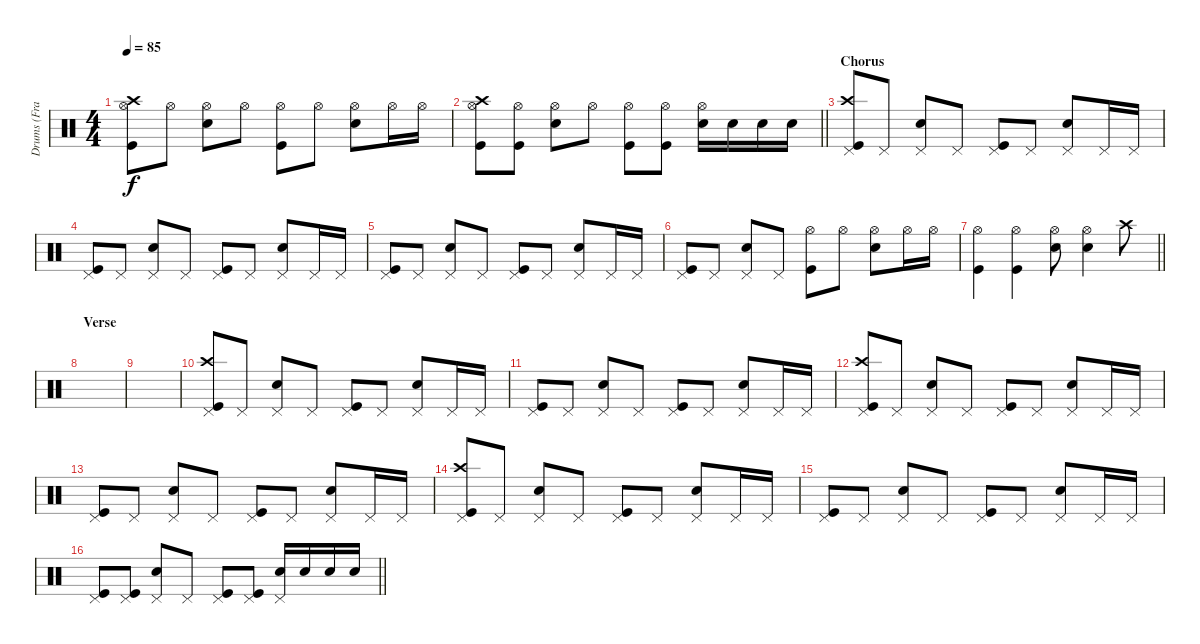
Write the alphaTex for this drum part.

\track ("Drums (Frank Ferrer)" "Drums (Fra") {instrument percussion}
\staff {score}
\articulation defaults
\ts (4 4)
\tempo 85
\clef neutral
\ks c
("Kick (hit)" "Hi-Hat (open)" "Crash high (hit)").8{dy f} "Hi-Hat (open)".8 ("Snare (hit) 2" "Hi-Hat (open)").8 "Hi-Hat (open)".8 ("Kick (hit)" "Hi-Hat (open)").8 "Hi-Hat (open)".8 ("Snare (hit) 2" "Hi-Hat (open)").8 "Hi-Hat (open)".16 "Hi-Hat (open)".16 |
\barLineRight lightlight
("Kick (hit)" "Hi-Hat (open)" "Crash high (hit)").8 ("Kick (hit)" "Hi-Hat (open)").8 ("Snare (hit) 2" "Hi-Hat (open)").8 "Hi-Hat (open)".8 ("Kick (hit)" "Hi-Hat (open)").8 ("Kick (hit)" "Hi-Hat (open)").8 ("Snare (hit) 2" "Hi-Hat (open)").16 "Snare (hit) 2".16 "Snare (hit) 2".16 "Snare (hit) 2".16 |
\section ("" "Chorus")
("Kick (hit)" "Pedal Hi-Hat (hit)" "Crash high (hit)").8 "Pedal Hi-Hat (hit)".8 ("Snare (hit) 2" "Pedal Hi-Hat (hit)").8 "Pedal Hi-Hat (hit)".8 ("Kick (hit)" "Pedal Hi-Hat (hit)").8 "Pedal Hi-Hat (hit)".8 ("Snare (hit) 2" "Pedal Hi-Hat (hit)").8 "Pedal Hi-Hat (hit)".16 "Pedal Hi-Hat (hit)".16 |
("Kick (hit)" "Pedal Hi-Hat (hit)").8 "Pedal Hi-Hat (hit)".8 ("Snare (hit) 2" "Pedal Hi-Hat (hit)").8 "Pedal Hi-Hat (hit)".8 ("Kick (hit)" "Pedal Hi-Hat (hit)").8 "Pedal Hi-Hat (hit)".8 ("Snare (hit) 2" "Pedal Hi-Hat (hit)").8 "Pedal Hi-Hat (hit)".16 "Pedal Hi-Hat (hit)".16 |
("Kick (hit)" "Pedal Hi-Hat (hit)").8 "Pedal Hi-Hat (hit)".8 ("Snare (hit) 2" "Pedal Hi-Hat (hit)").8 "Pedal Hi-Hat (hit)".8 ("Kick (hit)" "Pedal Hi-Hat (hit)").8 "Pedal Hi-Hat (hit)".8 ("Snare (hit) 2" "Pedal Hi-Hat (hit)").8 "Pedal Hi-Hat (hit)".16 "Pedal Hi-Hat (hit)".16 |
("Kick (hit)" "Pedal Hi-Hat (hit)").8 "Pedal Hi-Hat (hit)".8 ("Snare (hit) 2" "Pedal Hi-Hat (hit)").8 "Pedal Hi-Hat (hit)".8 ("Kick (hit)" "Hi-Hat (open)").8 "Hi-Hat (open)".8 ("Snare (hit) 2" "Hi-Hat (open)").8 "Hi-Hat (open)".16 "Hi-Hat (open)".16 |
\barLineRight lightlight
("Kick (hit)" "Hi-Hat (open)").4 ("Kick (hit)" "Hi-Hat (open)").4 ("Snare (hit) 2" "Hi-Hat (open)").8 ("Snare (hit) 2" "Hi-Hat (open)").4 "Crash high (hit)".8 |
\section ("" "Verse")
|
|
("Kick (hit)" "Pedal Hi-Hat (hit)" "Crash high (hit)").8 "Pedal Hi-Hat (hit)".8 ("Snare (hit) 2" "Pedal Hi-Hat (hit)").8 "Pedal Hi-Hat (hit)".8 ("Kick (hit)" "Pedal Hi-Hat (hit)").8 "Pedal Hi-Hat (hit)".8 ("Snare (hit) 2" "Pedal Hi-Hat (hit)").8 "Pedal Hi-Hat (hit)".16 "Pedal Hi-Hat (hit)".16 |
("Kick (hit)" "Pedal Hi-Hat (hit)").8 "Pedal Hi-Hat (hit)".8 ("Snare (hit) 2" "Pedal Hi-Hat (hit)").8 "Pedal Hi-Hat (hit)".8 ("Kick (hit)" "Pedal Hi-Hat (hit)").8 "Pedal Hi-Hat (hit)".8 ("Snare (hit) 2" "Pedal Hi-Hat (hit)").8 "Pedal Hi-Hat (hit)".16 "Pedal Hi-Hat (hit)".16 |
("Kick (hit)" "Pedal Hi-Hat (hit)" "Crash high (hit)").8 "Pedal Hi-Hat (hit)".8 ("Snare (hit) 2" "Pedal Hi-Hat (hit)").8 "Pedal Hi-Hat (hit)".8 ("Kick (hit)" "Pedal Hi-Hat (hit)").8 "Pedal Hi-Hat (hit)".8 ("Snare (hit) 2" "Pedal Hi-Hat (hit)").8 "Pedal Hi-Hat (hit)".16 "Pedal Hi-Hat (hit)".16 |
("Kick (hit)" "Pedal Hi-Hat (hit)").8 "Pedal Hi-Hat (hit)".8 ("Snare (hit) 2" "Pedal Hi-Hat (hit)").8 "Pedal Hi-Hat (hit)".8 ("Kick (hit)" "Pedal Hi-Hat (hit)").8 "Pedal Hi-Hat (hit)".8 ("Snare (hit) 2" "Pedal Hi-Hat (hit)").8 "Pedal Hi-Hat (hit)".16 "Pedal Hi-Hat (hit)".16 |
("Kick (hit)" "Pedal Hi-Hat (hit)" "Crash high (hit)").8 "Pedal Hi-Hat (hit)".8 ("Snare (hit) 2" "Pedal Hi-Hat (hit)").8 "Pedal Hi-Hat (hit)".8 ("Kick (hit)" "Pedal Hi-Hat (hit)").8 "Pedal Hi-Hat (hit)".8 ("Snare (hit) 2" "Pedal Hi-Hat (hit)").8 "Pedal Hi-Hat (hit)".16 "Pedal Hi-Hat (hit)".16 |
("Kick (hit)" "Pedal Hi-Hat (hit)").8 "Pedal Hi-Hat (hit)".8 ("Snare (hit) 2" "Pedal Hi-Hat (hit)").8 "Pedal Hi-Hat (hit)".8 ("Kick (hit)" "Pedal Hi-Hat (hit)").8 "Pedal Hi-Hat (hit)".8 ("Snare (hit) 2" "Pedal Hi-Hat (hit)").8 "Pedal Hi-Hat (hit)".16 "Pedal Hi-Hat (hit)".16 |
\barLineRight lightlight
("Kick (hit)" "Pedal Hi-Hat (hit)").8 ("Kick (hit)" "Pedal Hi-Hat (hit)").8 ("Snare (hit) 2" "Pedal Hi-Hat (hit)").8 "Pedal Hi-Hat (hit)".8 ("Kick (hit)" "Pedal Hi-Hat (hit)").8 ("Kick (hit)" "Pedal Hi-Hat (hit)").8 ("Snare (hit) 2" "Pedal Hi-Hat (hit)").16 "Snare (hit) 2".16 "Snare (hit) 2".16 "Snare (hit) 2".16
